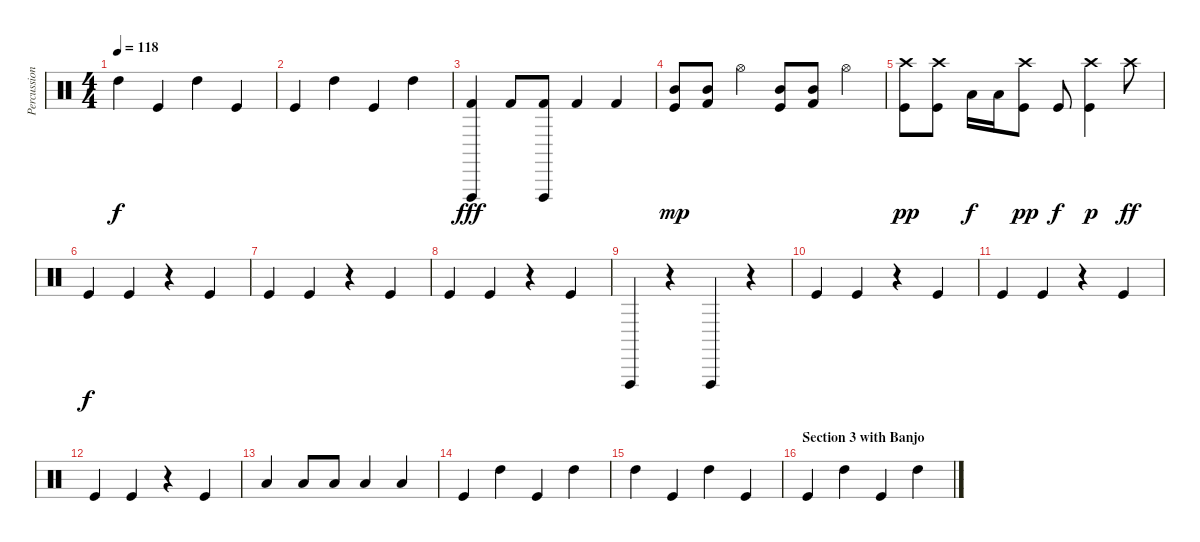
\track ("Percussion" "Percussion") {instrument percussion}
\staff {score}
\articulation defaults
\ts (4 4)
\tempo 118
\clef neutral
\ks c "High Tom (hit)".4{dy f} "Kick (hit)".4 "High Tom (hit)".4 "Kick (hit)".4
|
"Kick (hit)".4 "High Tom (hit)".4 "Kick (hit)".4 "High Tom (hit)".4 |
("Vibraslap (hit)" "Kick (hit) 2").4{dy fff} "Kick (hit) 2".8 ("Vibraslap (hit)" "Kick (hit) 2").8 "Kick (hit) 2".4 "Kick (hit) 2".4 |
("Mid Tom (hit)" "Kick (hit)").8{dy mp} ("Mid Tom (hit)" "Kick (hit) 2").8 "Hi-Hat (open)".4 ("Mid Tom (hit)" "Kick (hit)").8 ("Mid Tom (hit)" "Kick (hit) 2").8 "Hi-Hat (open)".4 |
("Kick (hit)" "Crash high (hit)").8{dy pp} ("Kick (hit)" "Crash high (hit)").8 "Low Tom (hit)".16{dy f} "Low Tom (hit)".16 ("Kick (hit)" "Crash high (hit)").8{dy pp} "Kick (hit)".8{dy f} ("Kick (hit)" "Crash high (hit)").4{dy p} "Crash high (hit)".8{dy ff} |
"Kick (hit)".4{dy f} "Kick (hit)".4 r.4 "Kick (hit)".4 |
"Kick (hit)".4 "Kick (hit)".4 r.4 "Kick (hit)".4 |
"Kick (hit)".4 "Kick (hit)".4 r.4 "Kick (hit)".4 |
"Vibraslap (hit)".4 r.4 "Vibraslap (hit)".4 r.4 |
"Kick (hit)".4 "Kick (hit)".4 r.4 "Kick (hit)".4 |
"Kick (hit)".4 "Kick (hit)".4 r.4 "Kick (hit)".4 |
"Kick (hit)".4 "Kick (hit)".4 r.4 "Kick (hit)".4 |
"Low Tom (hit)".4 "Low Tom (hit)".8 "Low Tom (hit)".8 "Low Tom (hit)".4 "Low Tom (hit)".4 |
"Kick (hit)".4 "High Tom (hit)".4 "Kick (hit)".4 "High Tom (hit)".4 |
"High Tom (hit)".4 "Kick (hit)".4 "High Tom (hit)".4 "Kick (hit)".4 |
\section ("" "Section 3 with Banjo")
"Kick (hit)".4 "High Tom (hit)".4 "Kick (hit)".4 "High Tom (hit)".4
